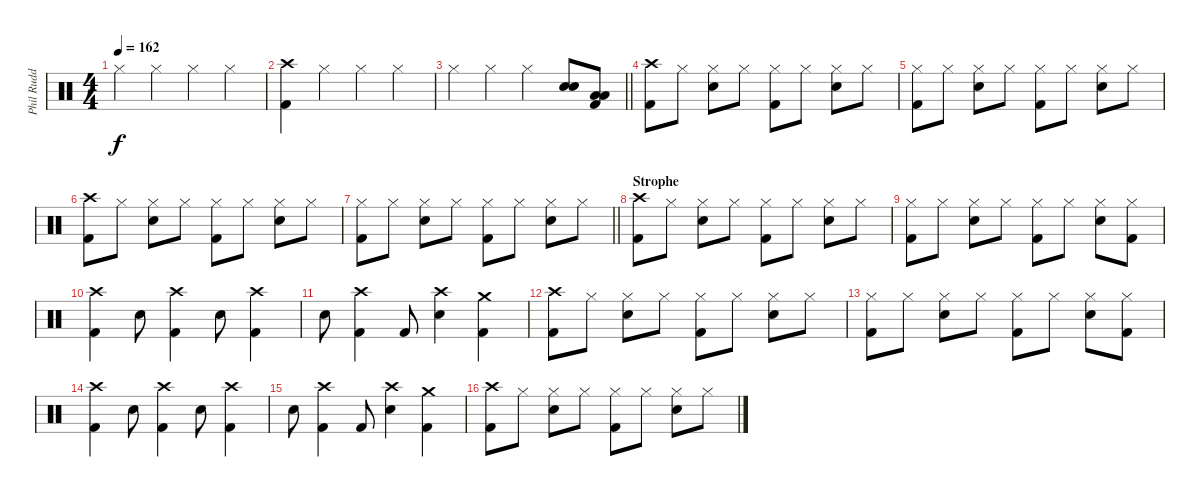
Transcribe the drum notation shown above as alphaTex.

\track ("Phil Rudd" "Phil Rudd") {instrument percussion}
\staff {score}
\articulation defaults
\ts (4 4)
\tempo 162
\clef neutral
\ks c "Hi-Hat (closed)".4{dy f} "Hi-Hat (closed)".4 "Hi-Hat (closed)".4 "Hi-Hat (closed)".4
|
("Crash high (hit)" "Kick (hit) 2").4 "Hi-Hat (closed)".4 "Hi-Hat (closed)".4 "Hi-Hat (closed)".4 |
\barLineRight lightlight "Hi-Hat (closed)".4 "Hi-Hat (closed)".4 "Hi-Hat (closed)".4
("Snare (hit) 2" "Snare (hit) 2").8 ("Low Tom (hit)" "Low Tom (hit)" "Kick (hit) 2").8 |
("Crash high (hit)" "Kick (hit) 2").8 "Hi-Hat (closed)".8 ("Hi-Hat (closed)" "Snare (hit) 2").8 "Hi-Hat (closed)".8 ("Hi-Hat (closed)" "Kick (hit) 2").8 "Hi-Hat (closed)".8 ("Hi-Hat (closed)" "Snare (hit) 2").8 "Hi-Hat (closed)".8 |
("Hi-Hat (closed)" "Kick (hit) 2").8 "Hi-Hat (closed)".8 ("Hi-Hat (closed)" "Snare (hit) 2").8 "Hi-Hat (closed)".8 ("Hi-Hat (closed)" "Kick (hit) 2").8 "Hi-Hat (closed)".8 ("Hi-Hat (closed)" "Snare (hit) 2").8 "Hi-Hat (closed)".8 |
("Crash high (hit)" "Kick (hit) 2").8 "Hi-Hat (closed)".8 ("Hi-Hat (closed)" "Snare (hit) 2").8 "Hi-Hat (closed)".8 ("Hi-Hat (closed)" "Kick (hit) 2").8 "Hi-Hat (closed)".8 ("Hi-Hat (closed)" "Snare (hit) 2").8 "Hi-Hat (closed)".8 |
\barLineRight lightlight
("Hi-Hat (closed)" "Kick (hit) 2").8 "Hi-Hat (closed)".8 ("Hi-Hat (closed)" "Snare (hit) 2").8 "Hi-Hat (closed)".8 ("Hi-Hat (closed)" "Kick (hit) 2").8 "Hi-Hat (closed)".8 ("Hi-Hat (closed)" "Snare (hit) 2").8 "Hi-Hat (closed)".8 |
\section ("" "Strophe")
("Crash high (hit)" "Kick (hit) 2").8 "Hi-Hat (closed)".8 ("Hi-Hat (closed)" "Snare (hit) 2").8 "Hi-Hat (closed)".8 ("Hi-Hat (closed)" "Kick (hit) 2").8 "Hi-Hat (closed)".8 ("Hi-Hat (closed)" "Snare (hit) 2").8 "Hi-Hat (closed)".8 |
("Hi-Hat (closed)" "Kick (hit) 2").8 "Hi-Hat (closed)".8 ("Hi-Hat (closed)" "Snare (hit) 2").8 "Hi-Hat (closed)".8 ("Hi-Hat (closed)" "Kick (hit) 2").8 "Hi-Hat (closed)".8 ("Hi-Hat (closed)" "Snare (hit) 2").8 ("Hi-Hat (closed)" "Kick (hit) 2").8 |
("Crash high (hit)" "Kick (hit) 2").4 "Snare (hit) 2".8 ("Crash high (hit)" "Kick (hit) 2").4 "Snare (hit) 2".8 ("Crash high (hit)" "Kick (hit) 2").4 |
"Snare (hit) 2".8 ("Crash high (hit)" "Kick (hit) 2").4 "Kick (hit) 2".8 ("Crash high (hit)" "Snare (hit) 2").4 ("Crash medium (hit)" "Kick (hit) 2").4 |
("Crash high (hit)" "Kick (hit) 2").8 "Hi-Hat (closed)".8 ("Hi-Hat (closed)" "Snare (hit) 2").8 "Hi-Hat (closed)".8 ("Hi-Hat (closed)" "Kick (hit) 2").8 "Hi-Hat (closed)".8 ("Hi-Hat (closed)" "Snare (hit) 2").8 "Hi-Hat (closed)".8 |
("Hi-Hat (closed)" "Kick (hit) 2").8 "Hi-Hat (closed)".8 ("Hi-Hat (closed)" "Snare (hit) 2").8 "Hi-Hat (closed)".8 ("Hi-Hat (closed)" "Kick (hit) 2").8 "Hi-Hat (closed)".8 ("Hi-Hat (closed)" "Snare (hit) 2").8 ("Hi-Hat (closed)" "Kick (hit) 2").8 |
("Crash high (hit)" "Kick (hit) 2").4 "Snare (hit) 2".8 ("Crash high (hit)" "Kick (hit) 2").4 "Snare (hit) 2".8 ("Crash high (hit)" "Kick (hit) 2").4 |
"Snare (hit) 2".8 ("Crash high (hit)" "Kick (hit) 2").4 "Kick (hit) 2".8 ("Crash high (hit)" "Snare (hit) 2").4 ("Crash medium (hit)" "Kick (hit) 2").4 |
("Crash high (hit)" "Kick (hit) 2").8 "Hi-Hat (closed)".8 ("Hi-Hat (closed)" "Snare (hit) 2").8 "Hi-Hat (closed)".8 ("Hi-Hat (closed)" "Kick (hit) 2").8 "Hi-Hat (closed)".8 ("Hi-Hat (closed)" "Snare (hit) 2").8 "Hi-Hat (closed)".8
